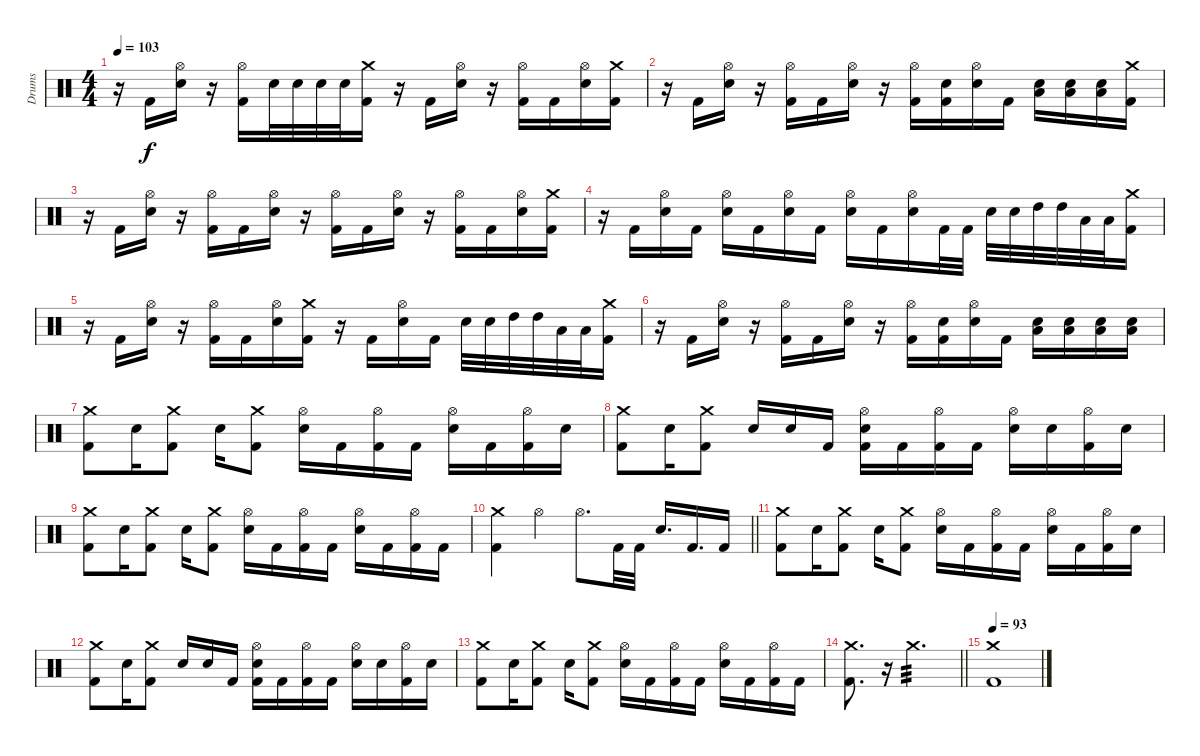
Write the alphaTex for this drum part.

\track ("Drums" "Drums") {instrument percussion}
\staff {score}
\articulation defaults
\ts (4 4)
\tempo 103
\clef neutral
\ks c
r.16{dy f} "Kick (hit) 2".16 ("Hi-Hat (open)" "Electric Snare (hit)").16 r.16 ("Hi-Hat (open)" "Kick (hit) 2").16 "Electric Snare (hit)".32 "Electric Snare (hit)".32 "Electric Snare (hit)".32 "Electric Snare (hit)".32 ("Crash medium (hit)" "Kick (hit) 2").16 r.16 "Kick (hit) 2".16 ("Hi-Hat (open)" "Electric Snare (hit)").16 r.16 ("Hi-Hat (open)" "Kick (hit) 2").16 "Kick (hit) 2".16 ("Hi-Hat (open)" "Electric Snare (hit)").16 ("Crash medium (hit)" "Kick (hit) 2").16 |
r.16 "Kick (hit) 2".16 ("Hi-Hat (open)" "Electric Snare (hit)").16 r.16 ("Hi-Hat (open)" "Kick (hit) 2").16 "Kick (hit) 2".16 ("Hi-Hat (open)" "Electric Snare (hit)").16 r.16 ("Hi-Hat (open)" "Kick (hit) 2").16 ("Electric Snare (hit)" "Kick (hit) 2").16 ("Hi-Hat (open)" "Electric Snare (hit)").16 "Kick (hit) 2".16 ("Low Floor Tom (hit)" "Electric Snare (hit)").16 ("Low Floor Tom (hit)" "Electric Snare (hit)").16 ("Low Floor Tom (hit)" "Electric Snare (hit)").16 ("Crash medium (hit)" "Kick (hit) 2").16 |
r.16 "Kick (hit) 2".16 ("Hi-Hat (open)" "Electric Snare (hit)").16 r.16 ("Hi-Hat (open)" "Kick (hit) 2").16 "Kick (hit) 2".16 ("Hi-Hat (open)" "Electric Snare (hit)").16 r.16 ("Hi-Hat (open)" "Kick (hit) 2").16 "Kick (hit) 2".16 ("Hi-Hat (open)" "Electric Snare (hit)").16 r.16 ("Hi-Hat (open)" "Kick (hit) 2").16 "Kick (hit) 2".16 ("Hi-Hat (open)" "Electric Snare (hit)").16 ("Crash medium (hit)" "Kick (hit) 2").16 |
r.16 "Kick (hit) 2".16 ("Hi-Hat (open)" "Electric Snare (hit)").16 "Kick (hit) 2".16 ("Hi-Hat (open)" "Electric Snare (hit)").16 "Kick (hit) 2".16 ("Hi-Hat (open)" "Electric Snare (hit)").16 "Kick (hit) 2".16 ("Hi-Hat (open)" "Electric Snare (hit)").16 "Kick (hit) 2".16 ("Hi-Hat (open)" "Electric Snare (hit)").16 "Kick (hit) 2".32 "Kick (hit) 2".32 "Electric Snare (hit)".32 "Electric Snare (hit)".32 "High Tom (hit)".32 "High Tom (hit)".32 "Low Tom (hit)".32 "Low Tom (hit)".32 ("Crash medium (hit)" "Kick (hit) 2").16 |
r.16 "Kick (hit) 2".16 ("Hi-Hat (open)" "Electric Snare (hit)").16 r.16 ("Hi-Hat (open)" "Kick (hit) 2").16 "Kick (hit) 2".16 ("Hi-Hat (open)" "Electric Snare (hit)").16 ("Crash medium (hit)" "Kick (hit) 2").16 r.16 "Kick (hit) 2".16 ("Hi-Hat (open)" "Electric Snare (hit)").16 "Kick (hit) 2".16 "Electric Snare (hit)".32 "Electric Snare (hit)".32 "High Tom (hit)".32 "High Tom (hit)".32 "Low Tom (hit)".32 "Low Tom (hit)".32 ("Crash medium (hit)" "Kick (hit) 2").16 |
r.16 "Kick (hit) 2".16 ("Hi-Hat (open)" "Electric Snare (hit)").16 r.16 ("Hi-Hat (open)" "Kick (hit) 2").16 "Kick (hit) 2".16 ("Hi-Hat (open)" "Electric Snare (hit)").16 r.16 ("Hi-Hat (open)" "Kick (hit) 2").16 ("Electric Snare (hit)" "Kick (hit) 2").16 ("Hi-Hat (open)" "Electric Snare (hit)").16 "Kick (hit) 2".16 ("Low Floor Tom (hit)" "Electric Snare (hit)").16 ("Low Floor Tom (hit)" "Electric Snare (hit)").16 ("Low Floor Tom (hit)" "Electric Snare (hit)").16 ("Low Floor Tom (hit)" "Electric Snare (hit)").16 |
("Crash medium (hit)" "Kick (hit) 2").8 "Electric Snare (hit)".16 ("Crash medium (hit)" "Kick (hit) 2").8 "Electric Snare (hit)".16 ("Crash medium (hit)" "Kick (hit) 2").8 ("Hi-Hat (open)" "Electric Snare (hit)").16 "Kick (hit) 2".16 ("Hi-Hat (open)" "Kick (hit) 2").16 "Kick (hit) 2".16 ("Hi-Hat (open)" "Electric Snare (hit)").16 "Kick (hit) 2".16 ("Hi-Hat (open)" "Kick (hit) 2").16 "Electric Snare (hit)".16 |
("Crash medium (hit)" "Kick (hit) 2").8 "Electric Snare (hit)".16 ("Crash medium (hit)" "Kick (hit) 2").8 "Electric Snare (hit)".16 "Electric Snare (hit)".16 "Kick (hit) 2".16 ("Hi-Hat (open)" "Electric Snare (hit)" "Kick (hit) 2").16 "Kick (hit) 2".16 ("Hi-Hat (open)" "Kick (hit) 2").16 "Kick (hit) 2".16 ("Hi-Hat (open)" "Electric Snare (hit)").16 "Electric Snare (hit)".16 ("Hi-Hat (open)" "Kick (hit) 2").16 "Electric Snare (hit)".16 |
("Crash medium (hit)" "Kick (hit) 2").8 "Electric Snare (hit)".16 ("Crash medium (hit)" "Kick (hit) 2").8 "Electric Snare (hit)".16 ("Crash medium (hit)" "Kick (hit) 2").8 ("Hi-Hat (open)" "Electric Snare (hit)").16 "Kick (hit) 2".16 ("Hi-Hat (open)" "Kick (hit) 2").16 "Kick (hit) 2".16 ("Hi-Hat (open)" "Electric Snare (hit)").16 "Kick (hit) 2".16 ("Hi-Hat (open)" "Kick (hit) 2").16 "Kick (hit) 2".16 |
\barLineRight lightlight
("Crash medium (hit)" "Kick (hit) 2").4 "Hi-Hat (open)".4 "Hi-Hat (open)".8{d} "Kick (hit) 2".32 "Kick (hit) 2".32 "Electric Snare (hit)".16{d} "Kick (hit) 2".16{d} "Kick (hit) 2".16 |
("Crash medium (hit)" "Kick (hit) 2").8 "Electric Snare (hit)".16 ("Crash medium (hit)" "Kick (hit) 2").8 "Electric Snare (hit)".16 ("Crash medium (hit)" "Kick (hit) 2").8 ("Hi-Hat (open)" "Electric Snare (hit)").16 "Kick (hit) 2".16 ("Hi-Hat (open)" "Kick (hit) 2").16 "Kick (hit) 2".16 ("Hi-Hat (open)" "Electric Snare (hit)").16 "Kick (hit) 2".16 ("Hi-Hat (open)" "Kick (hit) 2").16 "Electric Snare (hit)".16 |
("Crash medium (hit)" "Kick (hit) 2").8 "Electric Snare (hit)".16 ("Crash medium (hit)" "Kick (hit) 2").8 "Electric Snare (hit)".16 "Electric Snare (hit)".16 "Kick (hit) 2".16 ("Hi-Hat (open)" "Electric Snare (hit)" "Kick (hit) 2").16 "Kick (hit) 2".16 ("Hi-Hat (open)" "Kick (hit) 2").16 "Kick (hit) 2".16 ("Hi-Hat (open)" "Electric Snare (hit)").16 "Electric Snare (hit)".16 ("Hi-Hat (open)" "Kick (hit) 2").16 "Electric Snare (hit)".16 |
("Crash medium (hit)" "Kick (hit) 2").8 "Electric Snare (hit)".16 ("Crash medium (hit)" "Kick (hit) 2").8 "Electric Snare (hit)".16 ("Crash medium (hit)" "Kick (hit) 2").8 ("Hi-Hat (open)" "Electric Snare (hit)").16 "Kick (hit) 2".16 ("Hi-Hat (open)" "Kick (hit) 2").16 "Kick (hit) 2".16 ("Hi-Hat (open)" "Electric Snare (hit)").16 "Kick (hit) 2".16 ("Hi-Hat (open)" "Kick (hit) 2").16 "Kick (hit) 2".16 |
\barLineRight lightlight
("Crash medium (hit)" "Kick (hit) 2").8{d} r.16{volume 0} "Crash medium (hit)".2{d tp 3 volume 14} |
\tempo 93
("Crash medium (hit)" "Kick (hit) 2").1
